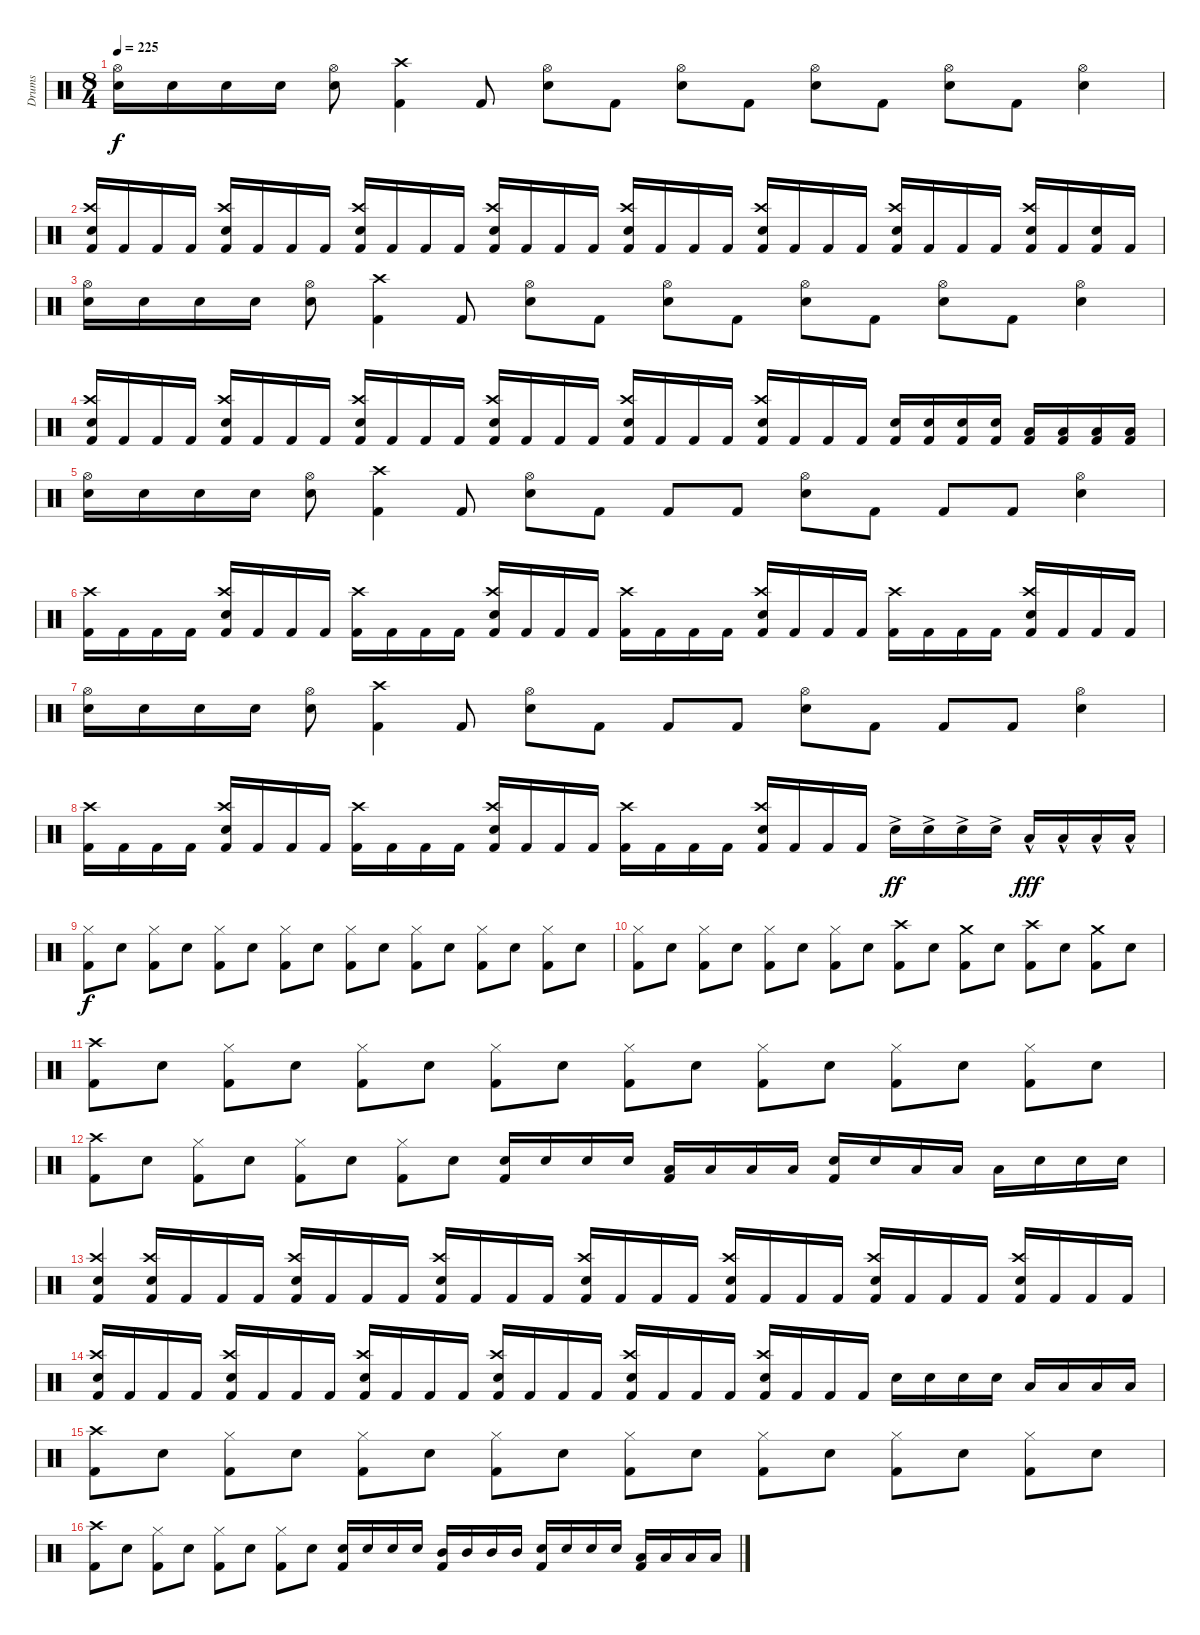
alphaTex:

\track ("Drums" "Drums") {instrument percussion}
\staff {score}
\articulation defaults
\ts (8 4)
\tempo 225
\clef neutral
\ks c
("Hi-Hat (open)" "Electric Snare (hit)").16{dy f} "Electric Snare (hit)".16 "Electric Snare (hit)".16 "Electric Snare (hit)".16 ("Hi-Hat (open)" "Electric Snare (hit)").8 ("Crash high (hit)" "Kick (hit) 2").4 "Kick (hit) 2".8 ("Hi-Hat (open)" "Electric Snare (hit)").8 "Kick (hit) 2".8 ("Hi-Hat (open)" "Electric Snare (hit)").8 "Kick (hit) 2".8 ("Hi-Hat (open)" "Electric Snare (hit)").8 "Kick (hit) 2".8 ("Hi-Hat (open)" "Electric Snare (hit)").8 "Kick (hit) 2".8 ("Hi-Hat (open)" "Electric Snare (hit)").4 |
("Crash high (hit)" "Electric Snare (hit)" "Kick (hit) 2").16 "Kick (hit) 2".16 "Kick (hit) 2".16 "Kick (hit) 2".16 ("Crash high (hit)" "Electric Snare (hit)" "Kick (hit) 2").16 "Kick (hit) 2".16 "Kick (hit) 2".16 "Kick (hit) 2".16 ("Crash high (hit)" "Electric Snare (hit)" "Kick (hit) 2").16 "Kick (hit) 2".16 "Kick (hit) 2".16 "Kick (hit) 2".16 ("Crash high (hit)" "Electric Snare (hit)" "Kick (hit) 2").16 "Kick (hit) 2".16 "Kick (hit) 2".16 "Kick (hit) 2".16 ("Crash high (hit)" "Electric Snare (hit)" "Kick (hit) 2").16 "Kick (hit) 2".16 "Kick (hit) 2".16 "Kick (hit) 2".16 ("Crash high (hit)" "Electric Snare (hit)" "Kick (hit) 2").16 "Kick (hit) 2".16 "Kick (hit) 2".16 "Kick (hit) 2".16 ("Crash high (hit)" "Electric Snare (hit)" "Kick (hit) 2").16 "Kick (hit) 2".16 "Kick (hit) 2".16 "Kick (hit) 2".16 ("Crash high (hit)" "Electric Snare (hit)" "Kick (hit) 2").16 "Kick (hit) 2".16 ("Electric Snare (hit)" "Kick (hit) 2").16 "Kick (hit) 2".16 |
("Hi-Hat (open)" "Electric Snare (hit)").16 "Electric Snare (hit)".16 "Electric Snare (hit)".16 "Electric Snare (hit)".16 ("Hi-Hat (open)" "Electric Snare (hit)").8 ("Crash high (hit)" "Kick (hit) 2").4 "Kick (hit) 2".8 ("Hi-Hat (open)" "Electric Snare (hit)").8 "Kick (hit) 2".8 ("Hi-Hat (open)" "Electric Snare (hit)").8 "Kick (hit) 2".8 ("Hi-Hat (open)" "Electric Snare (hit)").8 "Kick (hit) 2".8 ("Hi-Hat (open)" "Electric Snare (hit)").8 "Kick (hit) 2".8 ("Hi-Hat (open)" "Electric Snare (hit)").4 |
("Crash high (hit)" "Electric Snare (hit)" "Kick (hit) 2").16 "Kick (hit) 2".16 "Kick (hit) 2".16 "Kick (hit) 2".16 ("Crash high (hit)" "Electric Snare (hit)" "Kick (hit) 2").16 "Kick (hit) 2".16 "Kick (hit) 2".16 "Kick (hit) 2".16 ("Crash high (hit)" "Electric Snare (hit)" "Kick (hit) 2").16 "Kick (hit) 2".16 "Kick (hit) 2".16 "Kick (hit) 2".16 ("Crash high (hit)" "Electric Snare (hit)" "Kick (hit) 2").16 "Kick (hit) 2".16 "Kick (hit) 2".16 "Kick (hit) 2".16 ("Crash high (hit)" "Electric Snare (hit)" "Kick (hit) 2").16 "Kick (hit) 2".16 "Kick (hit) 2".16 "Kick (hit) 2".16 ("Crash high (hit)" "Electric Snare (hit)" "Kick (hit) 2").16 "Kick (hit) 2".16 "Kick (hit) 2".16 "Kick (hit) 2".16 ("Electric Snare (hit)" "Kick (hit) 2").16 ("Electric Snare (hit)" "Kick (hit) 2").16 ("Electric Snare (hit)" "Kick (hit) 2").16 ("Electric Snare (hit)" "Kick (hit) 2").16 ("Low Tom (hit)" "Kick (hit) 2").16 ("Low Tom (hit)" "Kick (hit) 2").16 ("Low Tom (hit)" "Kick (hit) 2").16 ("Low Tom (hit)" "Kick (hit) 2").16 |
("Hi-Hat (open)" "Electric Snare (hit)").16 "Electric Snare (hit)".16 "Electric Snare (hit)".16 "Electric Snare (hit)".16 ("Hi-Hat (open)" "Electric Snare (hit)").8 ("Crash high (hit)" "Kick (hit) 2").4 "Kick (hit) 2".8 ("Hi-Hat (open)" "Electric Snare (hit)").8 "Kick (hit) 2".8 "Kick (hit) 2".8 "Kick (hit) 2".8 ("Hi-Hat (open)" "Electric Snare (hit)").8 "Kick (hit) 2".8 "Kick (hit) 2".8 "Kick (hit) 2".8 ("Hi-Hat (open)" "Electric Snare (hit)").4 |
("Crash high (hit)" "Kick (hit) 2").16 "Kick (hit) 2".16 "Kick (hit) 2".16 "Kick (hit) 2".16 ("Crash high (hit)" "Electric Snare (hit)" "Kick (hit) 2").16 "Kick (hit) 2".16 "Kick (hit) 2".16 "Kick (hit) 2".16 ("Crash high (hit)" "Kick (hit) 2").16 "Kick (hit) 2".16 "Kick (hit) 2".16 "Kick (hit) 2".16 ("Crash high (hit)" "Electric Snare (hit)" "Kick (hit) 2").16 "Kick (hit) 2".16 "Kick (hit) 2".16 "Kick (hit) 2".16 ("Crash high (hit)" "Kick (hit) 2").16 "Kick (hit) 2".16 "Kick (hit) 2".16 "Kick (hit) 2".16 ("Crash high (hit)" "Electric Snare (hit)" "Kick (hit) 2").16 "Kick (hit) 2".16 "Kick (hit) 2".16 "Kick (hit) 2".16 ("Crash high (hit)" "Kick (hit) 2").16 "Kick (hit) 2".16 "Kick (hit) 2".16 "Kick (hit) 2".16 ("Crash high (hit)" "Electric Snare (hit)" "Kick (hit) 2").16 "Kick (hit) 2".16 "Kick (hit) 2".16 "Kick (hit) 2".16 |
("Hi-Hat (open)" "Electric Snare (hit)").16 "Electric Snare (hit)".16 "Electric Snare (hit)".16 "Electric Snare (hit)".16 ("Hi-Hat (open)" "Electric Snare (hit)").8 ("Crash high (hit)" "Kick (hit) 2").4 "Kick (hit) 2".8 ("Hi-Hat (open)" "Electric Snare (hit)").8 "Kick (hit) 2".8 "Kick (hit) 2".8 "Kick (hit) 2".8 ("Hi-Hat (open)" "Electric Snare (hit)").8 "Kick (hit) 2".8 "Kick (hit) 2".8 "Kick (hit) 2".8 ("Hi-Hat (open)" "Electric Snare (hit)").4 |
("Crash high (hit)" "Kick (hit) 2").16 "Kick (hit) 2".16 "Kick (hit) 2".16 "Kick (hit) 2".16 ("Crash high (hit)" "Electric Snare (hit)" "Kick (hit) 2").16 "Kick (hit) 2".16 "Kick (hit) 2".16 "Kick (hit) 2".16 ("Crash high (hit)" "Kick (hit) 2").16 "Kick (hit) 2".16 "Kick (hit) 2".16 "Kick (hit) 2".16 ("Crash high (hit)" "Electric Snare (hit)" "Kick (hit) 2").16 "Kick (hit) 2".16 "Kick (hit) 2".16 "Kick (hit) 2".16 ("Crash high (hit)" "Kick (hit) 2").16 "Kick (hit) 2".16 "Kick (hit) 2".16 "Kick (hit) 2".16 ("Crash high (hit)" "Electric Snare (hit)" "Kick (hit) 2").16 "Kick (hit) 2".16 "Kick (hit) 2".16 "Kick (hit) 2".16 "Electric Snare (hit)"{ac}.16{dy ff} "Electric Snare (hit)"{ac}.16 "Electric Snare (hit)"{ac}.16 "Electric Snare (hit)"{ac}.16 "Low Tom (hit)"{hac}.16{dy fff} "Low Tom (hit)"{hac}.16 "Low Tom (hit)"{hac}.16 "Low Tom (hit)"{hac}.16 |
("Hi-Hat (closed)" "Kick (hit) 2").8{dy f} "Electric Snare (hit)".8 ("Hi-Hat (closed)" "Kick (hit) 2").8 "Electric Snare (hit)".8 ("Hi-Hat (closed)" "Kick (hit) 2").8 "Electric Snare (hit)".8 ("Hi-Hat (closed)" "Kick (hit) 2").8 "Electric Snare (hit)".8 ("Hi-Hat (closed)" "Kick (hit) 2").8 "Electric Snare (hit)".8 ("Hi-Hat (closed)" "Kick (hit) 2").8 "Electric Snare (hit)".8 ("Hi-Hat (closed)" "Kick (hit) 2").8 "Electric Snare (hit)".8 ("Hi-Hat (closed)" "Kick (hit) 2").8 "Electric Snare (hit)".8 |
("Hi-Hat (closed)" "Kick (hit) 2").8 "Electric Snare (hit)".8 ("Hi-Hat (closed)" "Kick (hit) 2").8 "Electric Snare (hit)".8 ("Hi-Hat (closed)" "Kick (hit) 2").8 "Electric Snare (hit)".8 ("Hi-Hat (closed)" "Kick (hit) 2").8 "Electric Snare (hit)".8 ("Crash high (hit)" "Kick (hit) 2").8 "Electric Snare (hit)".8 ("Crash medium (hit)" "Kick (hit) 2").8 "Electric Snare (hit)".8 ("Crash high (hit)" "Kick (hit) 2").8 "Electric Snare (hit)".8 ("Crash medium (hit)" "Kick (hit) 2").8 "Electric Snare (hit)".8 |
("Crash high (hit)" "Kick (hit) 2").8 "Electric Snare (hit)".8 ("Hi-Hat (closed)" "Kick (hit) 2").8 "Electric Snare (hit)".8 ("Hi-Hat (closed)" "Kick (hit) 2").8 "Electric Snare (hit)".8 ("Hi-Hat (closed)" "Kick (hit) 2").8 "Electric Snare (hit)".8 ("Hi-Hat (closed)" "Kick (hit) 2").8 "Electric Snare (hit)".8 ("Hi-Hat (closed)" "Kick (hit) 2").8 "Electric Snare (hit)".8 ("Hi-Hat (closed)" "Kick (hit) 2").8 "Electric Snare (hit)".8 ("Hi-Hat (closed)" "Kick (hit) 2").8 "Electric Snare (hit)".8 |
("Crash high (hit)" "Kick (hit) 2").8 "Electric Snare (hit)".8 ("Hi-Hat (closed)" "Kick (hit) 2").8 "Electric Snare (hit)".8 ("Hi-Hat (closed)" "Kick (hit) 2").8 "Electric Snare (hit)".8 ("Hi-Hat (closed)" "Kick (hit) 2").8 "Electric Snare (hit)".8 ("Electric Snare (hit)" "Kick (hit) 2").16 "Electric Snare (hit)".16 "Electric Snare (hit)".16 "Electric Snare (hit)".16 ("Low Tom (hit)" "Kick (hit) 2").16 "Low Tom (hit)".16 "Low Tom (hit)".16 "Low Tom (hit)".16 ("Electric Snare (hit)" "Kick (hit) 2").16 "Electric Snare (hit)".16 "Low Tom (hit)".16 "Low Tom (hit)".16 "Low Tom (hit)".16 "Electric Snare (hit)".16 "Electric Snare (hit)".16 "Electric Snare (hit)".16 |
("Crash high (hit)" "Electric Snare (hit)" "Kick (hit) 2").4 ("Crash high (hit)" "Electric Snare (hit)" "Kick (hit) 2").16 "Kick (hit) 2".16 "Kick (hit) 2".16 "Kick (hit) 2".16 ("Crash high (hit)" "Electric Snare (hit)" "Kick (hit) 2").16 "Kick (hit) 2".16 "Kick (hit) 2".16 "Kick (hit) 2".16 ("Crash high (hit)" "Electric Snare (hit)" "Kick (hit) 2").16 "Kick (hit) 2".16 "Kick (hit) 2".16 "Kick (hit) 2".16 ("Crash high (hit)" "Electric Snare (hit)" "Kick (hit) 2").16 "Kick (hit) 2".16 "Kick (hit) 2".16 "Kick (hit) 2".16 ("Crash high (hit)" "Electric Snare (hit)" "Kick (hit) 2").16 "Kick (hit) 2".16 "Kick (hit) 2".16 "Kick (hit) 2".16 ("Crash high (hit)" "Electric Snare (hit)" "Kick (hit) 2").16 "Kick (hit) 2".16 "Kick (hit) 2".16 "Kick (hit) 2".16 ("Crash high (hit)" "Electric Snare (hit)" "Kick (hit) 2").16 "Kick (hit) 2".16 "Kick (hit) 2".16 "Kick (hit) 2".16 |
("Crash high (hit)" "Electric Snare (hit)" "Kick (hit) 2").16 "Kick (hit) 2".16 "Kick (hit) 2".16 "Kick (hit) 2".16 ("Crash high (hit)" "Electric Snare (hit)" "Kick (hit) 2").16 "Kick (hit) 2".16 "Kick (hit) 2".16 "Kick (hit) 2".16 ("Crash high (hit)" "Electric Snare (hit)" "Kick (hit) 2").16 "Kick (hit) 2".16 "Kick (hit) 2".16 "Kick (hit) 2".16 ("Crash high (hit)" "Electric Snare (hit)" "Kick (hit) 2").16 "Kick (hit) 2".16 "Kick (hit) 2".16 "Kick (hit) 2".16 ("Crash high (hit)" "Electric Snare (hit)" "Kick (hit) 2").16 "Kick (hit) 2".16 "Kick (hit) 2".16 "Kick (hit) 2".16 ("Crash high (hit)" "Electric Snare (hit)" "Kick (hit) 2").16 "Kick (hit) 2".16 "Kick (hit) 2".16 "Kick (hit) 2".16 "Electric Snare (hit)".16 "Electric Snare (hit)".16 "Electric Snare (hit)".16 "Electric Snare (hit)".16 "Low Tom (hit)".16 "Low Tom (hit)".16 "Low Tom (hit)".16 "Low Tom (hit)".16 |
("Crash high (hit)" "Kick (hit) 2").8 "Electric Snare (hit)".8 ("Hi-Hat (closed)" "Kick (hit) 2").8 "Electric Snare (hit)".8 ("Hi-Hat (closed)" "Kick (hit) 2").8 "Electric Snare (hit)".8 ("Hi-Hat (closed)" "Kick (hit) 2").8 "Electric Snare (hit)".8 ("Hi-Hat (closed)" "Kick (hit) 2").8 "Electric Snare (hit)".8 ("Hi-Hat (closed)" "Kick (hit) 2").8 "Electric Snare (hit)".8 ("Hi-Hat (closed)" "Kick (hit) 2").8 "Electric Snare (hit)".8 ("Hi-Hat (closed)" "Kick (hit) 2").8 "Electric Snare (hit)".8 |
("Crash high (hit)" "Kick (hit) 2").8 "Electric Snare (hit)".8 ("Hi-Hat (closed)" "Kick (hit) 2").8 "Electric Snare (hit)".8 ("Hi-Hat (closed)" "Kick (hit) 2").8 "Electric Snare (hit)".8 ("Hi-Hat (closed)" "Kick (hit) 2").8 "Electric Snare (hit)".8 ("Electric Snare (hit)" "Kick (hit) 2").16 "Electric Snare (hit)".16 "Electric Snare (hit)".16 "Electric Snare (hit)".16 ("Mid Tom (hit)" "Kick (hit) 2").16 "Mid Tom (hit)".16 "Mid Tom (hit)".16 "Mid Tom (hit)".16 ("Electric Snare (hit)" "Kick (hit) 2").16 "Electric Snare (hit)".16 "Electric Snare (hit)".16 "Electric Snare (hit)".16 ("Low Tom (hit)" "Kick (hit) 2").16 "Low Tom (hit)".16 "Low Tom (hit)".16 "Low Tom (hit)".16
